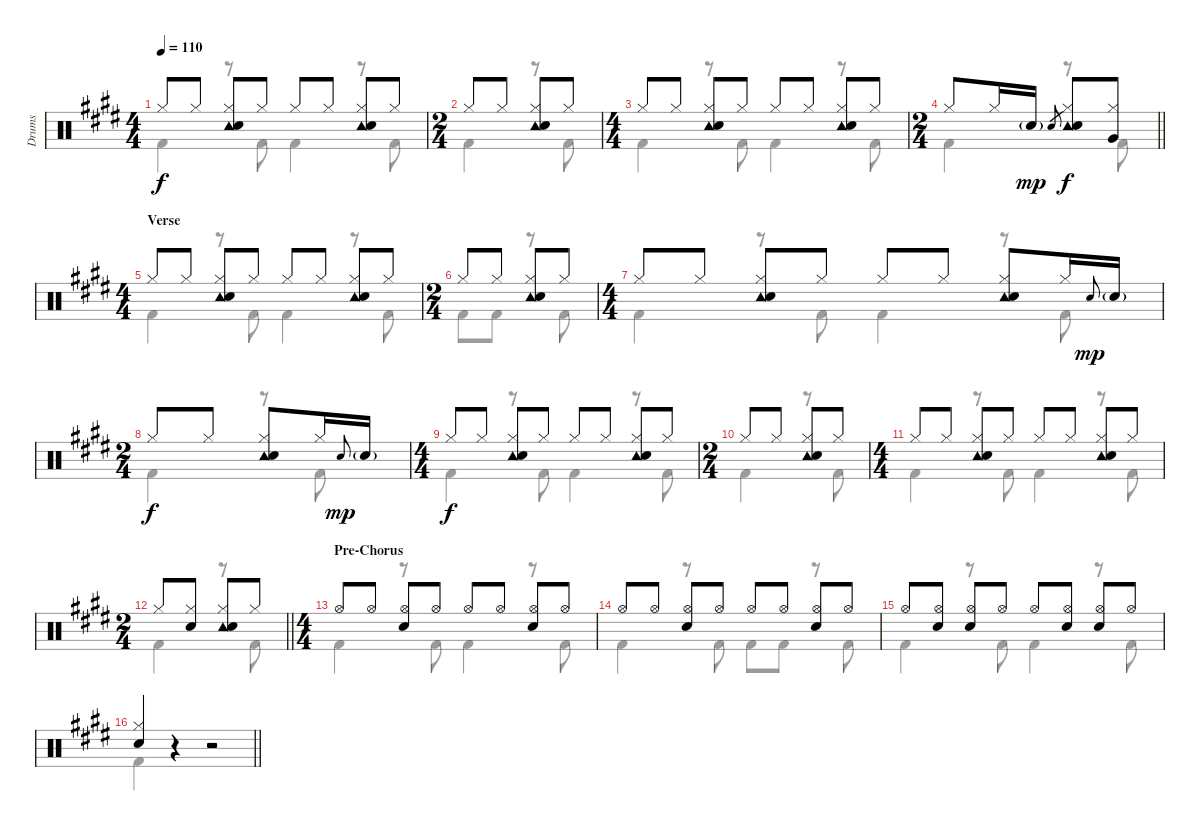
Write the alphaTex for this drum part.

\track ("Drums" "Drums") {instrument percussion}
\staff {score}
\articulation defaults
\voice
\ts (4 4)
\tempo 110
\clef neutral
\ks e "Hi-Hat (closed)".8{dy f} "Hi-Hat (closed)".8
("Tambourine (hit)" "Hi-Hat (closed)" "Snare (hit) 2").8 "Hi-Hat (closed)".8 "Hi-Hat (closed)".8 "Hi-Hat (closed)".8 ("Tambourine (hit)" "Hi-Hat (closed)" "Snare (hit) 2").8 "Hi-Hat (closed)".8 |
\ts (2 4)
"Hi-Hat (closed)".8 "Hi-Hat (closed)".8 ("Tambourine (hit)" "Hi-Hat (closed)" "Snare (hit) 2").8 "Hi-Hat (closed)".8 |
\ts (4 4)
"Hi-Hat (closed)".8 "Hi-Hat (closed)".8 ("Tambourine (hit)" "Hi-Hat (closed)" "Snare (hit) 2").8 "Hi-Hat (closed)".8 "Hi-Hat (closed)".8 "Hi-Hat (closed)".8 ("Tambourine (hit)" "Hi-Hat (closed)" "Snare (hit) 2").8 "Hi-Hat (closed)".8 |
\ts (2 4)
\barLineRight lightlight "Hi-Hat (closed)".8 "Hi-Hat (closed)".16 "Snare (hit) 2"{g}.16{dy mp} "Snare (hit) 2".8{gr}
("Tambourine (hit)" "Hi-Hat (closed)" "Snare (hit) 2").8{dy f} ("Hi-Hat (closed)" "Very Low Tom (hit)").8 |
\ts (4 4)
\section ("" "Verse")
"Hi-Hat (closed)".8 "Hi-Hat (closed)".8 ("Tambourine (hit)" "Hi-Hat (closed)" "Snare (hit) 2").8 "Hi-Hat (closed)".8 "Hi-Hat (closed)".8 "Hi-Hat (closed)".8 ("Tambourine (hit)" "Hi-Hat (closed)" "Snare (hit) 2").8 "Hi-Hat (closed)".8 |
\ts (2 4)
"Hi-Hat (closed)".8 "Hi-Hat (closed)".8 ("Tambourine (hit)" "Hi-Hat (closed)" "Snare (hit) 2").8 "Hi-Hat (closed)".8 |
\ts (4 4)
"Hi-Hat (closed)".8 "Hi-Hat (closed)".8 ("Tambourine (hit)" "Hi-Hat (closed)" "Snare (hit) 2").8 "Hi-Hat (closed)".8 "Hi-Hat (closed)".8 "Hi-Hat (closed)".8 ("Tambourine (hit)" "Hi-Hat (closed)" "Snare (hit) 2").8 "Hi-Hat (closed)".16 "Snare (hit) 2".8{gr onbeat dy mp} "Snare (hit) 2"{g}.16 |
\ts (2 4)
"Hi-Hat (closed)".8{dy f} "Hi-Hat (closed)".8 ("Tambourine (hit)" "Hi-Hat (closed)" "Snare (hit) 2").8 "Hi-Hat (closed)".16 "Snare (hit) 2".8{gr onbeat dy mp} "Snare (hit) 2"{g}.16 |
\ts (4 4)
"Hi-Hat (closed)".8{dy f} "Hi-Hat (closed)".8 ("Tambourine (hit)" "Hi-Hat (closed)" "Snare (hit) 2").8 "Hi-Hat (closed)".8 "Hi-Hat (closed)".8 "Hi-Hat (closed)".8 ("Tambourine (hit)" "Hi-Hat (closed)" "Snare (hit) 2").8 "Hi-Hat (closed)".8 |
\ts (2 4)
"Hi-Hat (closed)".8 "Hi-Hat (closed)".8 ("Tambourine (hit)" "Hi-Hat (closed)" "Snare (hit) 2").8 "Hi-Hat (closed)".8 |
\ts (4 4)
"Hi-Hat (closed)".8 "Hi-Hat (closed)".8 ("Tambourine (hit)" "Hi-Hat (closed)" "Snare (hit) 2").8 "Hi-Hat (closed)".8 "Hi-Hat (closed)".8 "Hi-Hat (closed)".8 ("Tambourine (hit)" "Hi-Hat (closed)" "Snare (hit) 2").8 "Hi-Hat (closed)".8 |
\ts (2 4)
\barLineRight lightlight "Hi-Hat (closed)".8
("Hi-Hat (closed)" "Snare (hit) 2").8 ("Tambourine (hit)" "Hi-Hat (closed)" "Snare (hit) 2").8 "Hi-Hat (closed)".8 |
\ts (4 4)
\section ("" "Pre-Chorus")
"Hi-Hat (open)".8 "Hi-Hat (open)".8 ("Hi-Hat (open)" "Snare (hit) 2").8 "Hi-Hat (open)".8 "Hi-Hat (open)".8 "Hi-Hat (open)".8 ("Hi-Hat (open)" "Snare (hit) 2").8 "Hi-Hat (open)".8 |
"Hi-Hat (open)".8 "Hi-Hat (open)".8 ("Hi-Hat (open)" "Snare (hit) 2").8 "Hi-Hat (open)".8 "Hi-Hat (open)".8 "Hi-Hat (open)".8 ("Hi-Hat (open)" "Snare (hit) 2").8 "Hi-Hat (open)".8 |
"Hi-Hat (open)".8 ("Hi-Hat (open)" "Snare (hit) 2").8 ("Hi-Hat (open)" "Snare (hit) 2").8 "Hi-Hat (open)".8 "Hi-Hat (open)".8 ("Hi-Hat (open)" "Snare (hit) 2").8 ("Hi-Hat (open)" "Snare (hit) 2").8 "Hi-Hat (open)".8 |
\barLineRight lightlight
("Hi-Hat (closed)" "Snare (hit) 2").4 r.4 r.2
\voice
\clef neutral
\ottava regular
\simile none
\ks e "Kick (hit) 2".4{dy f}
r.8 "Kick (hit) 2".8 "Kick (hit) 2".4 r.8 "Kick (hit) 2".8 |
"Kick (hit) 2".4 r.8 "Kick (hit) 2".8 |
"Kick (hit) 2".4 r.8 "Kick (hit) 2".8 "Kick (hit) 2".4 r.8 "Kick (hit) 2".8 |
\barLineRight lightlight "Kick (hit) 2".4
r.8 "Kick (hit) 2".8 |
"Kick (hit) 2".4 r.8 "Kick (hit) 2".8 "Kick (hit) 2".4 r.8 "Kick (hit) 2".8 |
"Kick (hit) 2".8 "Kick (hit) 2".8 r.8 "Kick (hit) 2".8 |
"Kick (hit) 2".4 r.8 "Kick (hit) 2".8 "Kick (hit) 2".4 r.8 "Kick (hit) 2".8 |
"Kick (hit) 2".4 r.8 "Kick (hit) 2".8 |
"Kick (hit) 2".4 r.8 "Kick (hit) 2".8 "Kick (hit) 2".4 r.8 "Kick (hit) 2".8 |
"Kick (hit) 2".4 r.8 "Kick (hit) 2".8 |
"Kick (hit) 2".4 r.8 "Kick (hit) 2".8 "Kick (hit) 2".4 r.8 "Kick (hit) 2".8 |
\barLineRight lightlight "Kick (hit) 2".4
r.8 "Kick (hit) 2".8 |
"Kick (hit) 2".4 r.8 "Kick (hit) 2".8 "Kick (hit) 2".4 r.8 "Kick (hit) 2".8 |
"Kick (hit) 2".4 r.8 "Kick (hit) 2".8 "Kick (hit) 2".8 "Kick (hit) 2".8 r.8 "Kick (hit) 2".8 |
"Kick (hit) 2".4 r.8 "Kick (hit) 2".8 "Kick (hit) 2".4 r.8 "Kick (hit) 2".8 |
\barLineRight lightlight "Kick (hit) 2".4
r.4 r.2
